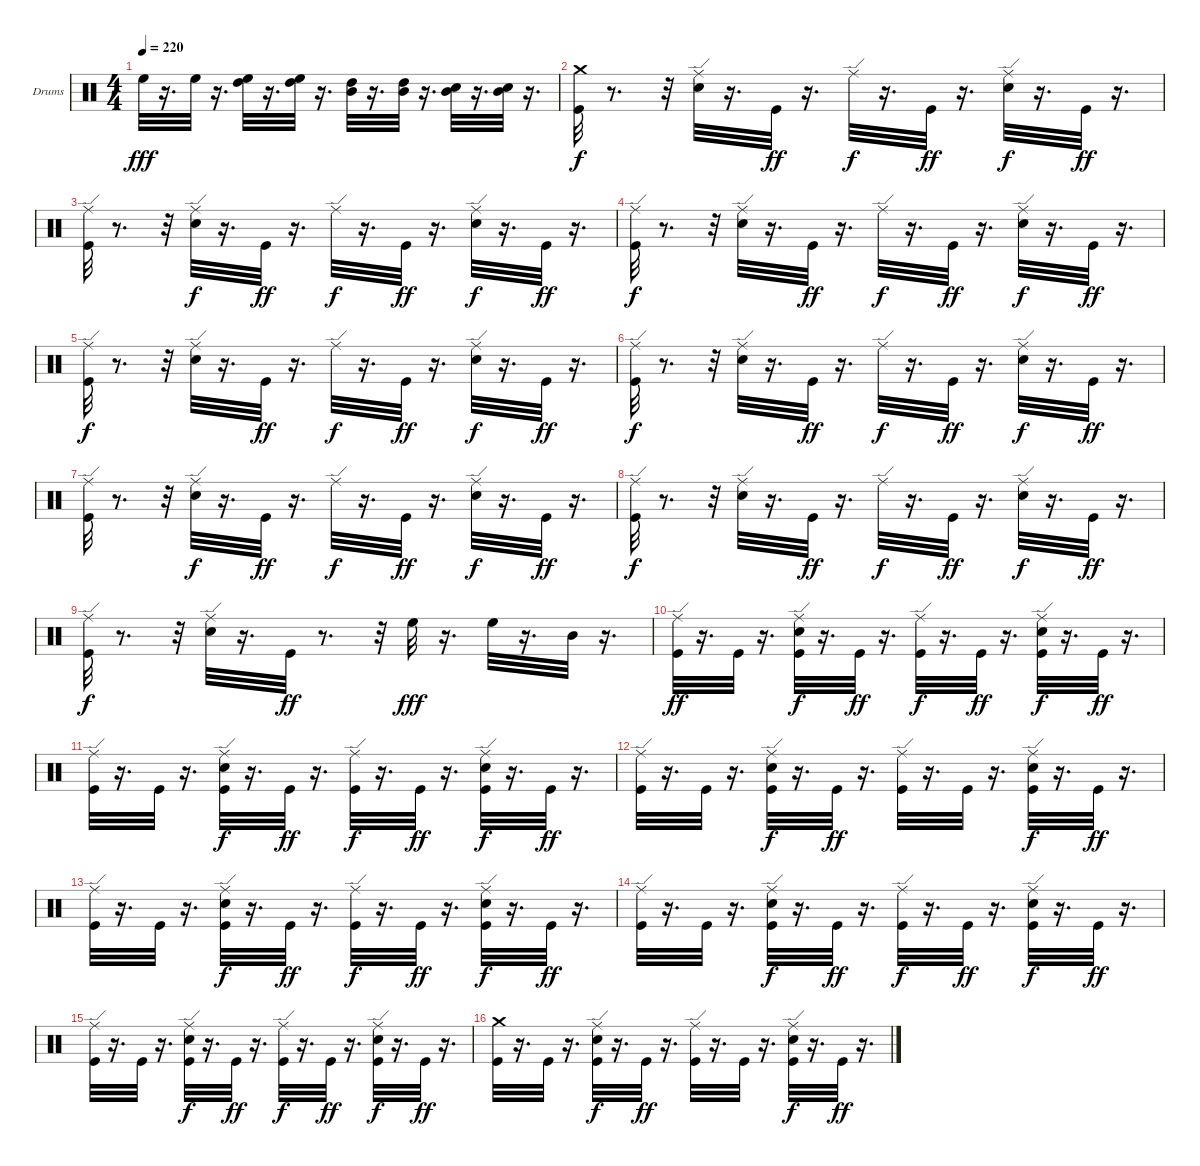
\defaultSystemsLayout 4
\bracketExtendMode groupsimilarinstruments
\firstSystemTrackNameOrientation horizontal
\otherSystemsTrackNameOrientation horizontal
\track ("Дмитрий Кривенков" "Drums") {instrument percussion}
\staff {score}
\articulation defaults
\ts (4 4)
\tempo 220
\clef neutral
\ks c "High Floor Tom (hit)".32{dy fff}
r.16{d} "High Floor Tom (hit)".32 r.16{d} ("High Tom (hit)" "High Floor Tom (hit)").32 r.16{d} ("High Floor Tom (hit)" "High Tom (hit)").32 r.16{d} ("Mid Tom (hit)" "High Tom (hit)").32 r.16{d} ("Mid Tom (hit)" "High Tom (hit)").32 r.16{d} ("Mid Tom (hit)" "Snare (hit) 2").32 r.16{d} ("Mid Tom (hit)" "Snare (hit) 2").32 r.16{d} |
("Crash medium (hit)" "Kick (hit)").32{dy f} r.8{d} r.32 ("Ride (edge)" "Snare (hit) 2").32 r.16{d} "Kick (hit)".32{dy ff} r.16{d} "Ride (edge)".32{dy f} r.16{d} "Kick (hit)".32{dy ff} r.16{d} ("Ride (edge)" "Snare (hit) 2").32{dy f} r.16{d} "Kick (hit)".32{dy ff} r.16{d} |
("Kick (hit)" "Ride (edge)").32 r.8{d} r.32 ("Snare (hit) 2" "Ride (edge)").32{dy f} r.16{d} "Kick (hit)".32{dy ff} r.16{d} "Ride (edge)".32{dy f} r.16{d} "Kick (hit)".32{dy ff} r.16{d} ("Snare (hit) 2" "Ride (edge)").32{dy f} r.16{d} "Kick (hit)".32{dy ff} r.16{d} |
("Ride (edge)" "Kick (hit)").32{dy f} r.8{d} r.32 ("Ride (edge)" "Snare (hit) 2").32 r.16{d} "Kick (hit)".32{dy ff} r.16{d} "Ride (edge)".32{dy f} r.16{d} "Kick (hit)".32{dy ff} r.16{d} ("Ride (edge)" "Snare (hit) 2").32{dy f} r.16{d} "Kick (hit)".32{dy ff} r.16{d} |
("Ride (edge)" "Kick (hit)").32{dy f} r.8{d} r.32 ("Ride (edge)" "Snare (hit) 2").32 r.16{d} "Kick (hit)".32{dy ff} r.16{d} "Ride (edge)".32{dy f} r.16{d} "Kick (hit)".32{dy ff} r.16{d} ("Ride (edge)" "Snare (hit) 2").32{dy f} r.16{d} "Kick (hit)".32{dy ff} r.16{d} |
("Ride (edge)" "Kick (hit)").32{dy f} r.8{d} r.32 ("Ride (edge)" "Snare (hit) 2").32 r.16{d} "Kick (hit)".32{dy ff} r.16{d} "Ride (edge)".32{dy f} r.16{d} "Kick (hit)".32{dy ff} r.16{d} ("Ride (edge)" "Snare (hit) 2").32{dy f} r.16{d} "Kick (hit)".32{dy ff} r.16{d} |
("Kick (hit)" "Ride (edge)").32 r.8{d} r.32 ("Snare (hit) 2" "Ride (edge)").32{dy f} r.16{d} "Kick (hit)".32{dy ff} r.16{d} "Ride (edge)".32{dy f} r.16{d} "Kick (hit)".32{dy ff} r.16{d} ("Snare (hit) 2" "Ride (edge)").32{dy f} r.16{d} "Kick (hit)".32{dy ff} r.16{d} |
("Ride (edge)" "Kick (hit)").32{dy f} r.8{d} r.32 ("Ride (edge)" "Snare (hit) 2").32 r.16{d} "Kick (hit)".32{dy ff} r.16{d} "Ride (edge)".32{dy f} r.16{d} "Kick (hit)".32{dy ff} r.16{d} ("Ride (edge)" "Snare (hit) 2").32{dy f} r.16{d} "Kick (hit)".32{dy ff} r.16{d} |
("Ride (edge)" "Kick (hit)").32{dy f} r.8{d} r.32 ("Ride (edge)" "Snare (hit) 2").32 r.16{d} "Kick (hit)".32{dy ff} r.8{d} r.32 "High Floor Tom (hit)".32{dy fff} r.16{d} "High Floor Tom (hit)".32 r.16{d} "Mid Tom (hit)".32 r.16{d} |
("Kick (hit)" "Ride (edge)").32{dy ff} r.16{d} "Kick (hit)".32 r.16{d} ("Snare (hit) 2" "Kick (hit)" "Ride (edge)").32{dy f} r.16{d} "Kick (hit)".32{dy ff} r.16{d} ("Ride (edge)" "Kick (hit)").32{dy f} r.16{d} "Kick (hit)".32{dy ff} r.16{d} ("Snare (hit) 2" "Kick (hit)" "Ride (edge)").32{dy f} r.16{d} "Kick (hit)".32{dy ff} r.16{d} |
("Kick (hit)" "Ride (edge)").32 r.16{d} "Kick (hit)".32 r.16{d} ("Snare (hit) 2" "Kick (hit)" "Ride (edge)").32{dy f} r.16{d} "Kick (hit)".32{dy ff} r.16{d} ("Ride (edge)" "Kick (hit)").32{dy f} r.16{d} "Kick (hit)".32{dy ff} r.16{d} ("Snare (hit) 2" "Kick (hit)" "Ride (edge)").32{dy f} r.16{d} "Kick (hit)".32{dy ff} r.16{d} |
("Kick (hit)" "Ride (edge)").32 r.16{d} "Kick (hit)".32 r.16{d} ("Ride (edge)" "Snare (hit) 2" "Kick (hit)").32{dy f} r.16{d} "Kick (hit)".32{dy ff} r.16{d} ("Kick (hit)" "Ride (edge)").32 r.16{d} "Kick (hit)".32 r.16{d} ("Ride (edge)" "Snare (hit) 2" "Kick (hit)").32{dy f} r.16{d} "Kick (hit)".32{dy ff} r.16{d} |
("Kick (hit)" "Ride (edge)").32 r.16{d} "Kick (hit)".32 r.16{d} ("Snare (hit) 2" "Kick (hit)" "Ride (edge)").32{dy f} r.16{d} "Kick (hit)".32{dy ff} r.16{d} ("Ride (edge)" "Kick (hit)").32{dy f} r.16{d} "Kick (hit)".32{dy ff} r.16{d} ("Snare (hit) 2" "Kick (hit)" "Ride (edge)").32{dy f} r.16{d} "Kick (hit)".32{dy ff} r.16{d} |
("Kick (hit)" "Ride (edge)").32 r.16{d} "Kick (hit)".32 r.16{d} ("Snare (hit) 2" "Kick (hit)" "Ride (edge)").32{dy f} r.16{d} "Kick (hit)".32{dy ff} r.16{d} ("Ride (edge)" "Kick (hit)").32{dy f} r.16{d} "Kick (hit)".32{dy ff} r.16{d} ("Snare (hit) 2" "Kick (hit)" "Ride (edge)").32{dy f} r.16{d} "Kick (hit)".32{dy ff} r.16{d} |
("Kick (hit)" "Ride (edge)").32 r.16{d} "Kick (hit)".32 r.16{d} ("Snare (hit) 2" "Kick (hit)" "Ride (edge)").32{dy f} r.16{d} "Kick (hit)".32{dy ff} r.16{d} ("Ride (edge)" "Kick (hit)").32{dy f} r.16{d} "Kick (hit)".32{dy ff} r.16{d} ("Snare (hit) 2" "Kick (hit)" "Ride (edge)").32{dy f} r.16{d} "Kick (hit)".32{dy ff} r.16{d} |
("Kick (hit)" "Crash medium (hit)").32 r.16{d} "Kick (hit)".32 r.16{d} ("Ride (edge)" "Snare (hit) 2" "Kick (hit)").32{dy f} r.16{d} "Kick (hit)".32{dy ff} r.16{d} ("Kick (hit)" "Ride (edge)").32 r.16{d} "Kick (hit)".32 r.16{d} ("Ride (edge)" "Snare (hit) 2" "Kick (hit)").32{dy f} r.16{d} "Kick (hit)".32{dy ff} r.16{d}
